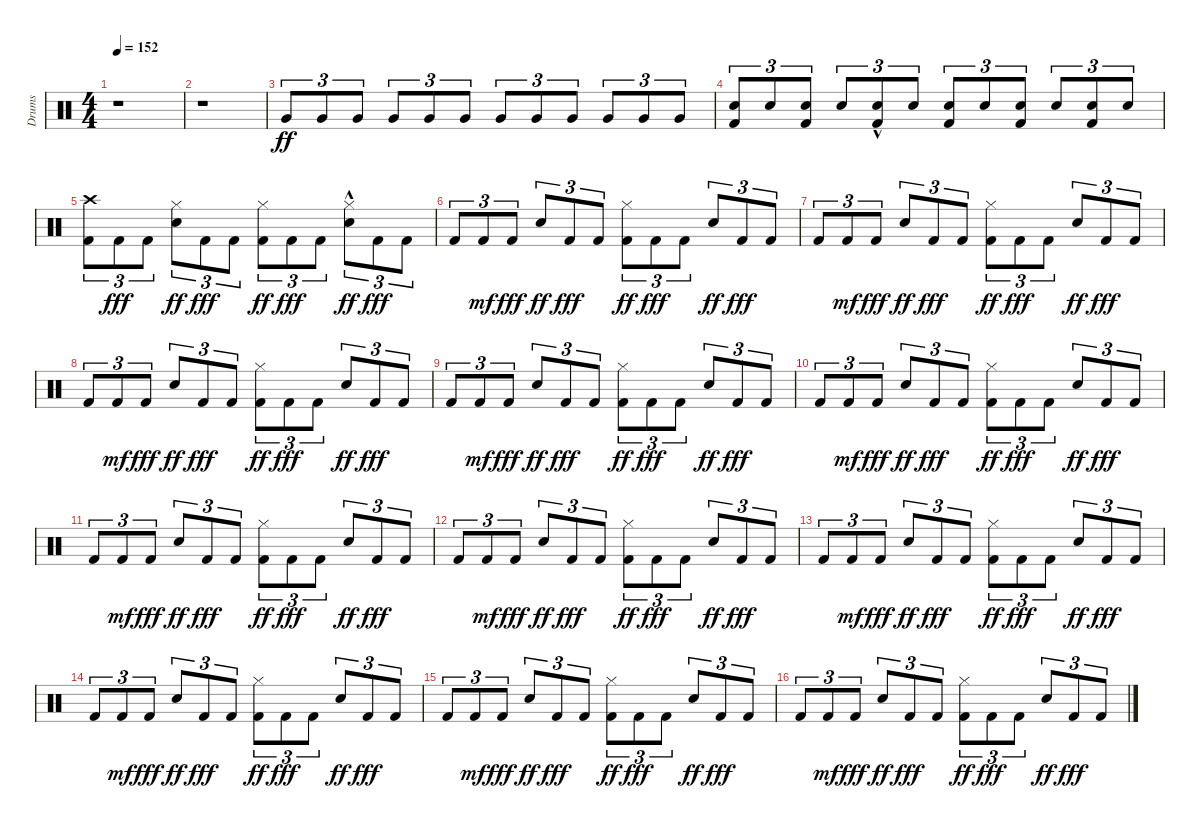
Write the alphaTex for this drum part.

\track ("Drums" "Drums") {instrument percussion}
\staff {score}
\articulation defaults
\ts (4 4)
\tempo 152
\clef neutral
\ks c
r.1{dy ff} |
r.1 |
"Very Low Tom (hit)".8{tu (3 2)} "Very Low Tom (hit)".8{tu (3 2)} "Very Low Tom (hit)".8{tu (3 2)} "Very Low Tom (hit)".8{tu (3 2)} "Very Low Tom (hit)".8{tu (3 2)} "Very Low Tom (hit)".8{tu (3 2)} "Very Low Tom (hit)".8{tu (3 2)} "Very Low Tom (hit)".8{tu (3 2)} "Very Low Tom (hit)".8{tu (3 2)} "Very Low Tom (hit)".8{tu (3 2)} "Very Low Tom (hit)".8{tu (3 2)} "Very Low Tom (hit)".8{tu (3 2)} |
("Kick (hit) 2" "Snare (hit) 2").8{tu (3 2)} "Snare (hit) 2".8{tu (3 2)} ("Kick (hit) 2" "Snare (hit) 2").8{tu (3 2)} "Snare (hit) 2".8{tu (3 2)} ("Kick (hit) 2" "Snare (hit) 2"{hac}).8{tu (3 2)} "Snare (hit) 2".8{tu (3 2)} ("Kick (hit) 2" "Snare (hit) 2").8{tu (3 2)} "Snare (hit) 2".8{tu (3 2)} ("Kick (hit) 2" "Snare (hit) 2").8{tu (3 2)} "Snare (hit) 2".8{tu (3 2)} ("Kick (hit) 2" "Snare (hit) 2").8{tu (3 2)} "Snare (hit) 2".8{tu (3 2)} |
("Kick (hit) 2" "Crash high (hit)").8{tu (3 2)} "Kick (hit) 2".8{tu (3 2) dy fff} "Kick (hit) 2".8{tu (3 2)} ("Snare (hit) 2" "Hi-Hat (closed)").8{tu (3 2) dy ff} "Kick (hit) 2".8{tu (3 2) dy fff} "Kick (hit) 2".8{tu (3 2)} ("Kick (hit) 2" "Hi-Hat (closed)").8{tu (3 2) dy ff} "Kick (hit) 2".8{tu (3 2) dy fff} "Kick (hit) 2".8{tu (3 2)} ("Snare (hit) 2" "Hi-Hat (closed)"{hac}).8{tu (3 2) dy ff} "Kick (hit) 2".8{tu (3 2) dy fff} "Kick (hit) 2".8{tu (3 2)} |
"Kick (hit) 2".8{tu (3 2)} "Kick (hit) 2".8{tu (3 2) dy mf} "Kick (hit) 2".8{tu (3 2) dy fff} "Snare (hit) 2".8{tu (3 2) dy ff} "Kick (hit) 2".8{tu (3 2) dy fff} "Kick (hit) 2".8{tu (3 2)} ("Kick (hit) 2" "Hi-Hat (closed)").8{tu (3 2) dy ff} "Kick (hit) 2".8{tu (3 2) dy fff} "Kick (hit) 2".8{tu (3 2)} "Snare (hit) 2".8{tu (3 2) dy ff} "Kick (hit) 2".8{tu (3 2) dy fff} "Kick (hit) 2".8{tu (3 2)} |
"Kick (hit) 2".8{tu (3 2)} "Kick (hit) 2".8{tu (3 2) dy mf} "Kick (hit) 2".8{tu (3 2) dy fff} "Snare (hit) 2".8{tu (3 2) dy ff} "Kick (hit) 2".8{tu (3 2) dy fff} "Kick (hit) 2".8{tu (3 2)} ("Kick (hit) 2" "Hi-Hat (closed)").8{tu (3 2) dy ff} "Kick (hit) 2".8{tu (3 2) dy fff} "Kick (hit) 2".8{tu (3 2)} "Snare (hit) 2".8{tu (3 2) dy ff} "Kick (hit) 2".8{tu (3 2) dy fff} "Kick (hit) 2".8{tu (3 2)} |
"Kick (hit) 2".8{tu (3 2)} "Kick (hit) 2".8{tu (3 2) dy mf} "Kick (hit) 2".8{tu (3 2) dy fff} "Snare (hit) 2".8{tu (3 2) dy ff} "Kick (hit) 2".8{tu (3 2) dy fff} "Kick (hit) 2".8{tu (3 2)} ("Kick (hit) 2" "Hi-Hat (closed)").8{tu (3 2) dy ff} "Kick (hit) 2".8{tu (3 2) dy fff} "Kick (hit) 2".8{tu (3 2)} "Snare (hit) 2".8{tu (3 2) dy ff} "Kick (hit) 2".8{tu (3 2) dy fff} "Kick (hit) 2".8{tu (3 2)} |
"Kick (hit) 2".8{tu (3 2)} "Kick (hit) 2".8{tu (3 2) dy mf} "Kick (hit) 2".8{tu (3 2) dy fff} "Snare (hit) 2".8{tu (3 2) dy ff} "Kick (hit) 2".8{tu (3 2) dy fff} "Kick (hit) 2".8{tu (3 2)} ("Kick (hit) 2" "Hi-Hat (closed)").8{tu (3 2) dy ff} "Kick (hit) 2".8{tu (3 2) dy fff} "Kick (hit) 2".8{tu (3 2)} "Snare (hit) 2".8{tu (3 2) dy ff} "Kick (hit) 2".8{tu (3 2) dy fff} "Kick (hit) 2".8{tu (3 2)} |
"Kick (hit) 2".8{tu (3 2)} "Kick (hit) 2".8{tu (3 2) dy mf} "Kick (hit) 2".8{tu (3 2) dy fff} "Snare (hit) 2".8{tu (3 2) dy ff} "Kick (hit) 2".8{tu (3 2) dy fff} "Kick (hit) 2".8{tu (3 2)} ("Kick (hit) 2" "Hi-Hat (closed)").8{tu (3 2) dy ff} "Kick (hit) 2".8{tu (3 2) dy fff} "Kick (hit) 2".8{tu (3 2)} "Snare (hit) 2".8{tu (3 2) dy ff} "Kick (hit) 2".8{tu (3 2) dy fff} "Kick (hit) 2".8{tu (3 2)} |
"Kick (hit) 2".8{tu (3 2)} "Kick (hit) 2".8{tu (3 2) dy mf} "Kick (hit) 2".8{tu (3 2) dy fff} "Snare (hit) 2".8{tu (3 2) dy ff} "Kick (hit) 2".8{tu (3 2) dy fff} "Kick (hit) 2".8{tu (3 2)} ("Kick (hit) 2" "Hi-Hat (closed)").8{tu (3 2) dy ff} "Kick (hit) 2".8{tu (3 2) dy fff} "Kick (hit) 2".8{tu (3 2)} "Snare (hit) 2".8{tu (3 2) dy ff} "Kick (hit) 2".8{tu (3 2) dy fff} "Kick (hit) 2".8{tu (3 2)} |
"Kick (hit) 2".8{tu (3 2)} "Kick (hit) 2".8{tu (3 2) dy mf} "Kick (hit) 2".8{tu (3 2) dy fff} "Snare (hit) 2".8{tu (3 2) dy ff} "Kick (hit) 2".8{tu (3 2) dy fff} "Kick (hit) 2".8{tu (3 2)} ("Kick (hit) 2" "Hi-Hat (closed)").8{tu (3 2) dy ff} "Kick (hit) 2".8{tu (3 2) dy fff} "Kick (hit) 2".8{tu (3 2)} "Snare (hit) 2".8{tu (3 2) dy ff} "Kick (hit) 2".8{tu (3 2) dy fff} "Kick (hit) 2".8{tu (3 2)} |
"Kick (hit) 2".8{tu (3 2)} "Kick (hit) 2".8{tu (3 2) dy mf} "Kick (hit) 2".8{tu (3 2) dy fff} "Snare (hit) 2".8{tu (3 2) dy ff} "Kick (hit) 2".8{tu (3 2) dy fff} "Kick (hit) 2".8{tu (3 2)} ("Kick (hit) 2" "Hi-Hat (closed)").8{tu (3 2) dy ff} "Kick (hit) 2".8{tu (3 2) dy fff} "Kick (hit) 2".8{tu (3 2)} "Snare (hit) 2".8{tu (3 2) dy ff} "Kick (hit) 2".8{tu (3 2) dy fff} "Kick (hit) 2".8{tu (3 2)} |
"Kick (hit) 2".8{tu (3 2)} "Kick (hit) 2".8{tu (3 2) dy mf} "Kick (hit) 2".8{tu (3 2) dy fff} "Snare (hit) 2".8{tu (3 2) dy ff} "Kick (hit) 2".8{tu (3 2) dy fff} "Kick (hit) 2".8{tu (3 2)} ("Kick (hit) 2" "Hi-Hat (closed)").8{tu (3 2) dy ff} "Kick (hit) 2".8{tu (3 2) dy fff} "Kick (hit) 2".8{tu (3 2)} "Snare (hit) 2".8{tu (3 2) dy ff} "Kick (hit) 2".8{tu (3 2) dy fff} "Kick (hit) 2".8{tu (3 2)} |
"Kick (hit) 2".8{tu (3 2)} "Kick (hit) 2".8{tu (3 2) dy mf} "Kick (hit) 2".8{tu (3 2) dy fff} "Snare (hit) 2".8{tu (3 2) dy ff} "Kick (hit) 2".8{tu (3 2) dy fff} "Kick (hit) 2".8{tu (3 2)} ("Kick (hit) 2" "Hi-Hat (closed)").8{tu (3 2) dy ff} "Kick (hit) 2".8{tu (3 2) dy fff} "Kick (hit) 2".8{tu (3 2)} "Snare (hit) 2".8{tu (3 2) dy ff} "Kick (hit) 2".8{tu (3 2) dy fff} "Kick (hit) 2".8{tu (3 2)} |
"Kick (hit) 2".8{tu (3 2)} "Kick (hit) 2".8{tu (3 2) dy mf} "Kick (hit) 2".8{tu (3 2) dy fff} "Snare (hit) 2".8{tu (3 2) dy ff} "Kick (hit) 2".8{tu (3 2) dy fff} "Kick (hit) 2".8{tu (3 2)} ("Kick (hit) 2" "Hi-Hat (closed)").8{tu (3 2) dy ff} "Kick (hit) 2".8{tu (3 2) dy fff} "Kick (hit) 2".8{tu (3 2)} "Snare (hit) 2".8{tu (3 2) dy ff} "Kick (hit) 2".8{tu (3 2) dy fff} "Kick (hit) 2".8{tu (3 2)}
